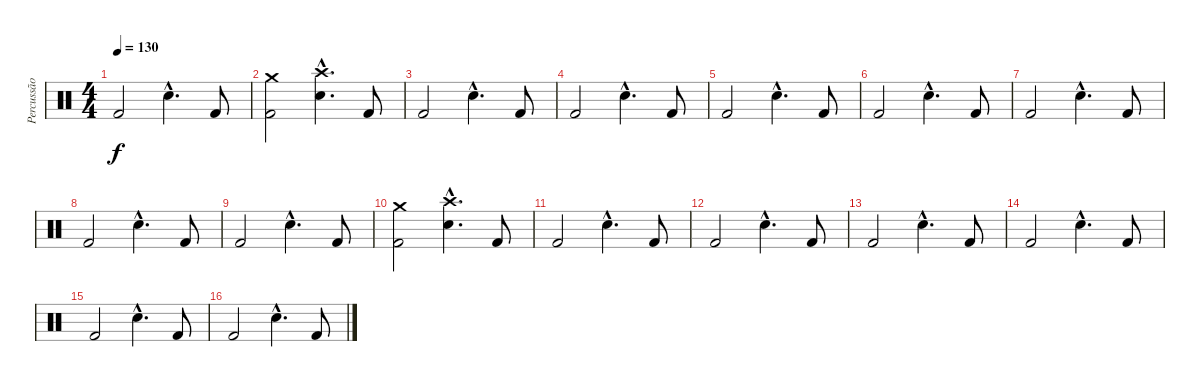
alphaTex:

\track ("Percussão" "Percussão") {instrument percussion}
\staff {score}
\articulation defaults
\ts (4 4)
\tempo 130
\clef neutral
\ks c "Kick (hit) 2".2{dy f} "Snare (hit) 2"{hac}.4{d} "Kick (hit) 2".8
|
("Crash medium (hit)" "Kick (hit) 2").2 ("Crash high (hit)"{hac} "Snare (hit) 2"{hac}).4{d} "Kick (hit) 2".8 |
"Kick (hit) 2".2 "Snare (hit) 2"{hac}.4{d} "Kick (hit) 2".8 |
"Kick (hit) 2".2 "Snare (hit) 2"{hac}.4{d} "Kick (hit) 2".8 |
"Kick (hit) 2".2 "Snare (hit) 2"{hac}.4{d} "Kick (hit) 2".8 |
"Kick (hit) 2".2 "Snare (hit) 2"{hac}.4{d} "Kick (hit) 2".8 |
"Kick (hit) 2".2 "Snare (hit) 2"{hac}.4{d} "Kick (hit) 2".8 |
"Kick (hit) 2".2 "Snare (hit) 2"{hac}.4{d} "Kick (hit) 2".8 |
"Kick (hit) 2".2 "Snare (hit) 2"{hac}.4{d} "Kick (hit) 2".8 |
("Crash medium (hit)" "Kick (hit) 2").2 ("Crash high (hit)"{hac} "Snare (hit) 2"{hac}).4{d} "Kick (hit) 2".8 |
"Kick (hit) 2".2 "Snare (hit) 2"{hac}.4{d} "Kick (hit) 2".8 |
"Kick (hit) 2".2 "Snare (hit) 2"{hac}.4{d} "Kick (hit) 2".8 |
"Kick (hit) 2".2 "Snare (hit) 2"{hac}.4{d} "Kick (hit) 2".8 |
"Kick (hit) 2".2 "Snare (hit) 2"{hac}.4{d} "Kick (hit) 2".8 |
"Kick (hit) 2".2 "Snare (hit) 2"{hac}.4{d} "Kick (hit) 2".8 |
"Kick (hit) 2".2 "Snare (hit) 2"{hac}.4{d} "Kick (hit) 2".8
